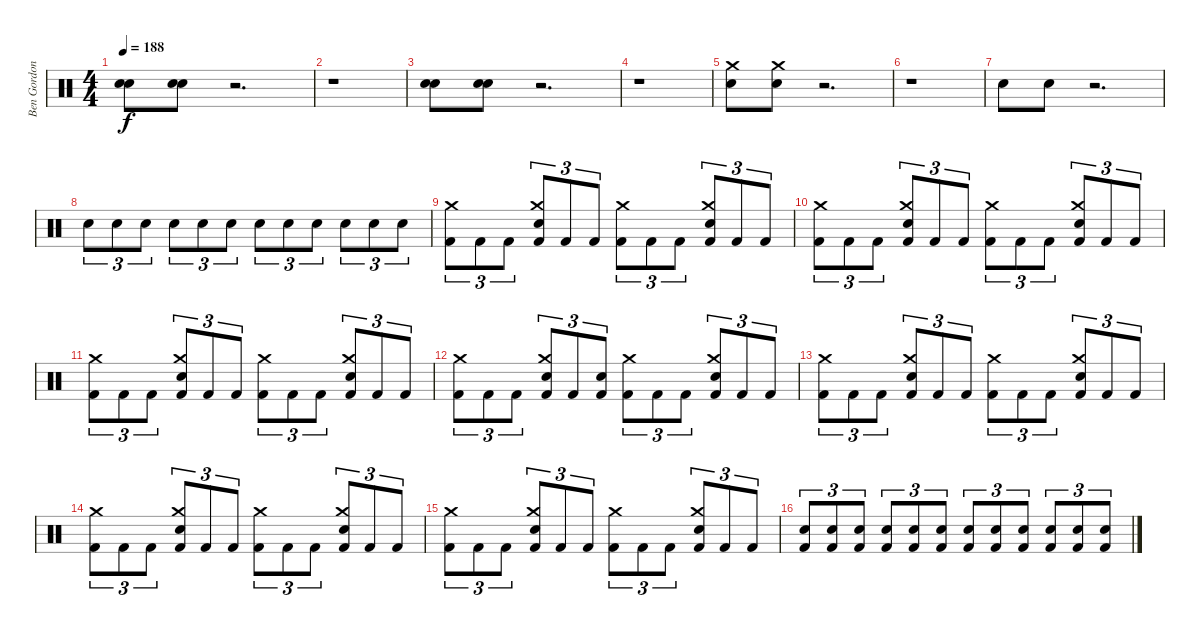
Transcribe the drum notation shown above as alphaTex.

\track ("Ben Gordon" "Ben Gordon") {instrument percussion}
\staff {score}
\articulation defaults
\ts (4 4)
\tempo 188
\clef neutral
\ks c
("Electric Snare (hit)" "Electric Snare (hit)").8{dy f} ("Electric Snare (hit)" "Electric Snare (hit)").8 r.2{d} |
r.1 |
("Electric Snare (hit)" "Electric Snare (hit)").8 ("Electric Snare (hit)" "Electric Snare (hit)").8 r.2{d} |
r.1 |
("Electric Snare (hit)" "Crash medium (hit)").8 ("Electric Snare (hit)" "Crash medium (hit)").8 r.2{d} |
r.1 |
"Electric Snare (hit)".8 "Electric Snare (hit)".8 r.2{d} |
"Electric Snare (hit)".8{tu (3 2)} "Electric Snare (hit)".8{tu (3 2)} "Electric Snare (hit)".8{tu (3 2)} "Electric Snare (hit)".8{tu (3 2)} "Electric Snare (hit)".8{tu (3 2)} "Electric Snare (hit)".8{tu (3 2)} "Electric Snare (hit)".8{tu (3 2)} "Electric Snare (hit)".8{tu (3 2)} "Electric Snare (hit)".8{tu (3 2)} "Electric Snare (hit)".8{tu (3 2)} "Electric Snare (hit)".8{tu (3 2)} "Electric Snare (hit)".8{tu (3 2)} |
("Crash medium (hit)" "Kick (hit) 2").8{tu (3 2)} "Kick (hit) 2".8{tu (3 2)} "Kick (hit) 2".8{tu (3 2)} ("Electric Snare (hit)" "Crash medium (hit)" "Kick (hit) 2").8{tu (3 2)} "Kick (hit) 2".8{tu (3 2)} "Kick (hit) 2".8{tu (3 2)} ("Crash medium (hit)" "Kick (hit) 2").8{tu (3 2)} "Kick (hit) 2".8{tu (3 2)} "Kick (hit) 2".8{tu (3 2)} ("Electric Snare (hit)" "Crash medium (hit)" "Kick (hit) 2").8{tu (3 2)} "Kick (hit) 2".8{tu (3 2)} "Kick (hit) 2".8{tu (3 2)} |
("Crash medium (hit)" "Kick (hit) 2").8{tu (3 2)} "Kick (hit) 2".8{tu (3 2)} "Kick (hit) 2".8{tu (3 2)} ("Electric Snare (hit)" "Crash medium (hit)" "Kick (hit) 2").8{tu (3 2)} "Kick (hit) 2".8{tu (3 2)} "Kick (hit) 2".8{tu (3 2)} ("Crash medium (hit)" "Kick (hit) 2").8{tu (3 2)} "Kick (hit) 2".8{tu (3 2)} "Kick (hit) 2".8{tu (3 2)} ("Electric Snare (hit)" "Crash medium (hit)" "Kick (hit) 2").8{tu (3 2)} "Kick (hit) 2".8{tu (3 2)} "Kick (hit) 2".8{tu (3 2)} |
("Crash medium (hit)" "Kick (hit) 2").8{tu (3 2)} "Kick (hit) 2".8{tu (3 2)} "Kick (hit) 2".8{tu (3 2)} ("Electric Snare (hit)" "Crash medium (hit)" "Kick (hit) 2").8{tu (3 2)} "Kick (hit) 2".8{tu (3 2)} "Kick (hit) 2".8{tu (3 2)} ("Crash medium (hit)" "Kick (hit) 2").8{tu (3 2)} "Kick (hit) 2".8{tu (3 2)} "Kick (hit) 2".8{tu (3 2)} ("Electric Snare (hit)" "Crash medium (hit)" "Kick (hit) 2").8{tu (3 2)} "Kick (hit) 2".8{tu (3 2)} "Kick (hit) 2".8{tu (3 2)} |
("Crash medium (hit)" "Kick (hit) 2").8{tu (3 2)} "Kick (hit) 2".8{tu (3 2)} "Kick (hit) 2".8{tu (3 2)} ("Electric Snare (hit)" "Crash medium (hit)" "Kick (hit) 2").8{tu (3 2)} "Kick (hit) 2".8{tu (3 2)} ("Electric Snare (hit)" "Kick (hit) 2").8{tu (3 2)} ("Crash medium (hit)" "Kick (hit) 2").8{tu (3 2)} "Kick (hit) 2".8{tu (3 2)} "Kick (hit) 2".8{tu (3 2)} ("Electric Snare (hit)" "Crash medium (hit)" "Kick (hit) 2").8{tu (3 2)} "Kick (hit) 2".8{tu (3 2)} "Kick (hit) 2".8{tu (3 2)} |
("Crash medium (hit)" "Kick (hit) 2").8{tu (3 2)} "Kick (hit) 2".8{tu (3 2)} "Kick (hit) 2".8{tu (3 2)} ("Electric Snare (hit)" "Crash medium (hit)" "Kick (hit) 2").8{tu (3 2)} "Kick (hit) 2".8{tu (3 2)} "Kick (hit) 2".8{tu (3 2)} ("Crash medium (hit)" "Kick (hit) 2").8{tu (3 2)} "Kick (hit) 2".8{tu (3 2)} "Kick (hit) 2".8{tu (3 2)} ("Electric Snare (hit)" "Crash medium (hit)" "Kick (hit) 2").8{tu (3 2)} "Kick (hit) 2".8{tu (3 2)} "Kick (hit) 2".8{tu (3 2)} |
("Crash medium (hit)" "Kick (hit) 2").8{tu (3 2)} "Kick (hit) 2".8{tu (3 2)} "Kick (hit) 2".8{tu (3 2)} ("Electric Snare (hit)" "Crash medium (hit)" "Kick (hit) 2").8{tu (3 2)} "Kick (hit) 2".8{tu (3 2)} "Kick (hit) 2".8{tu (3 2)} ("Crash medium (hit)" "Kick (hit) 2").8{tu (3 2)} "Kick (hit) 2".8{tu (3 2)} "Kick (hit) 2".8{tu (3 2)} ("Electric Snare (hit)" "Crash medium (hit)" "Kick (hit) 2").8{tu (3 2)} "Kick (hit) 2".8{tu (3 2)} "Kick (hit) 2".8{tu (3 2)} |
("Crash medium (hit)" "Kick (hit) 2").8{tu (3 2)} "Kick (hit) 2".8{tu (3 2)} "Kick (hit) 2".8{tu (3 2)} ("Electric Snare (hit)" "Crash medium (hit)" "Kick (hit) 2").8{tu (3 2)} "Kick (hit) 2".8{tu (3 2)} "Kick (hit) 2".8{tu (3 2)} ("Crash medium (hit)" "Kick (hit) 2").8{tu (3 2)} "Kick (hit) 2".8{tu (3 2)} "Kick (hit) 2".8{tu (3 2)} ("Electric Snare (hit)" "Crash medium (hit)" "Kick (hit) 2").8{tu (3 2)} "Kick (hit) 2".8{tu (3 2)} "Kick (hit) 2".8{tu (3 2)} |
("Electric Snare (hit)" "Kick (hit) 2").8{tu (3 2)} ("Electric Snare (hit)" "Kick (hit) 2").8{tu (3 2)} ("Electric Snare (hit)" "Kick (hit) 2").8{tu (3 2)} ("Electric Snare (hit)" "Kick (hit) 2").8{tu (3 2)} ("Electric Snare (hit)" "Kick (hit) 2").8{tu (3 2)} ("Electric Snare (hit)" "Kick (hit) 2").8{tu (3 2)} ("Electric Snare (hit)" "Kick (hit) 2").8{tu (3 2)} ("Electric Snare (hit)" "Kick (hit) 2").8{tu (3 2)} ("Electric Snare (hit)" "Kick (hit) 2").8{tu (3 2)} ("Electric Snare (hit)" "Kick (hit) 2").8{tu (3 2)} ("Electric Snare (hit)" "Kick (hit) 2").8{tu (3 2)} ("Electric Snare (hit)" "Kick (hit) 2").8{tu (3 2)}
